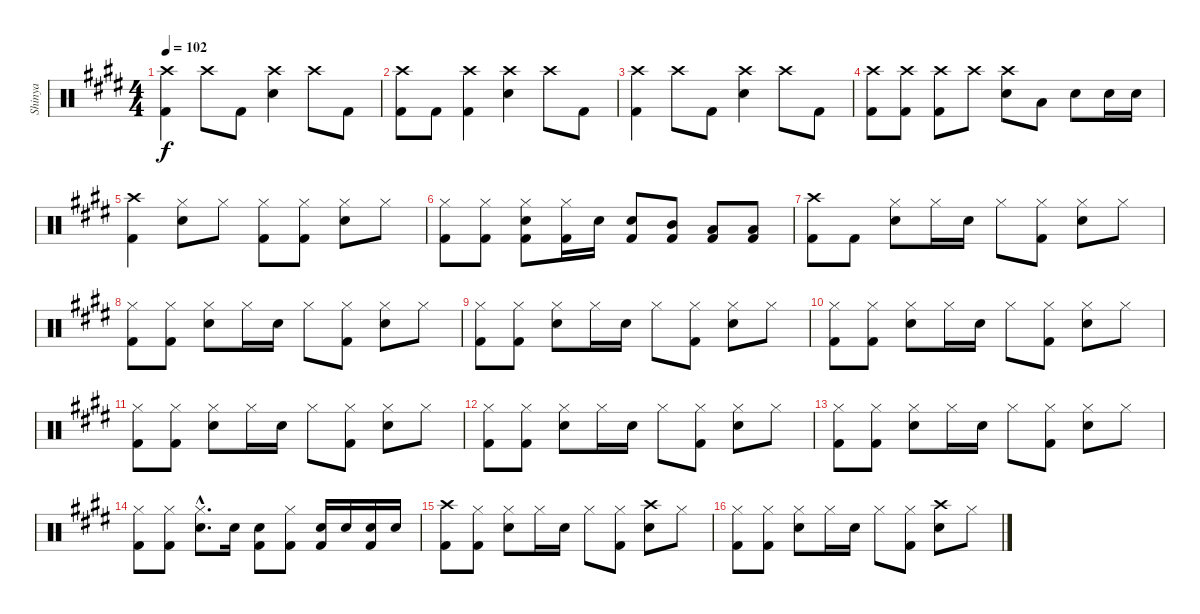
\track ("Shinya" "Shinya") {instrument percussion}
\staff {score}
\articulation defaults
\ts (4 4)
\tempo 102
\clef neutral
\ks e
("Crash high (hit)" "Kick (hit) 2").4{dy f} "Crash high (hit)".8 "Kick (hit) 2".8 ("Crash high (hit)" "Snare (hit) 2").4 "Crash high (hit)".8 "Kick (hit) 2".8 |
("Crash high (hit)" "Kick (hit) 2").8 "Kick (hit) 2".8 ("Crash high (hit)" "Kick (hit) 2").4 ("Crash high (hit)" "Snare (hit) 2").4 "Crash high (hit)".8 "Kick (hit) 2".8 |
("Crash high (hit)" "Kick (hit) 2").4 "Crash high (hit)".8 "Kick (hit) 2".8 ("Crash high (hit)" "Snare (hit) 2").4 "Crash high (hit)".8 "Kick (hit) 2".8 |
("Crash high (hit)" "Kick (hit) 2").8 ("Crash high (hit)" "Kick (hit) 2").8 ("Crash high (hit)" "Kick (hit) 2").8 "Crash high (hit)".8 ("Crash high (hit)" "Snare (hit) 2").8 "Low Tom (hit)".8 "Snare (hit) 2".8 "Snare (hit) 2".16 "Snare (hit) 2".16 |
("Crash high (hit)" "Kick (hit) 2").4 ("Hi-Hat (closed)" "Snare (hit) 2").8 "Hi-Hat (closed)".8 ("Hi-Hat (closed)" "Kick (hit) 2").8 ("Hi-Hat (closed)" "Kick (hit) 2").8 ("Hi-Hat (closed)" "Snare (hit) 2").8 "Hi-Hat (closed)".8 |
("Hi-Hat (closed)" "Kick (hit) 2").8 ("Hi-Hat (closed)" "Kick (hit) 2").8 ("Hi-Hat (closed)" "Snare (hit) 2" "Kick (hit) 2").8 ("Hi-Hat (closed)" "Kick (hit) 2").16 "Snare (hit) 2".16 ("Snare (hit) 2" "Kick (hit) 2").8 ("Mid Tom (hit)" "Kick (hit) 2").8 ("Low Tom (hit)" "Kick (hit) 2").8 ("Low Floor Tom (hit)" "Kick (hit) 2").8 |
("Crash high (hit)" "Kick (hit) 2").8 "Kick (hit) 2".8 ("Hi-Hat (closed)" "Snare (hit) 2").8 "Hi-Hat (closed)".16 "Snare (hit) 2".16 "Hi-Hat (closed)".8 ("Hi-Hat (closed)" "Kick (hit) 2").8 ("Hi-Hat (closed)" "Snare (hit) 2").8 "Hi-Hat (closed)".8 |
("Hi-Hat (closed)" "Kick (hit) 2").8 ("Hi-Hat (closed)" "Kick (hit) 2").8 ("Hi-Hat (closed)" "Snare (hit) 2").8 "Hi-Hat (closed)".16 "Snare (hit) 2".16 "Hi-Hat (closed)".8 ("Hi-Hat (closed)" "Kick (hit) 2").8 ("Hi-Hat (closed)" "Snare (hit) 2").8 "Hi-Hat (closed)".8 |
("Hi-Hat (closed)" "Kick (hit) 2").8 ("Hi-Hat (closed)" "Kick (hit) 2").8 ("Hi-Hat (closed)" "Snare (hit) 2").8 "Hi-Hat (closed)".16 "Snare (hit) 2".16 "Hi-Hat (closed)".8 ("Hi-Hat (closed)" "Kick (hit) 2").8 ("Hi-Hat (closed)" "Snare (hit) 2").8 "Hi-Hat (closed)".8 |
("Hi-Hat (closed)" "Kick (hit) 2").8 ("Hi-Hat (closed)" "Kick (hit) 2").8 ("Hi-Hat (closed)" "Snare (hit) 2").8 "Hi-Hat (closed)".16 "Snare (hit) 2".16 "Hi-Hat (closed)".8 ("Hi-Hat (closed)" "Kick (hit) 2").8 ("Hi-Hat (closed)" "Snare (hit) 2").8 "Hi-Hat (closed)".8 |
("Hi-Hat (closed)" "Kick (hit) 2").8 ("Hi-Hat (closed)" "Kick (hit) 2").8 ("Hi-Hat (closed)" "Snare (hit) 2").8 "Hi-Hat (closed)".16 "Snare (hit) 2".16 "Hi-Hat (closed)".8 ("Hi-Hat (closed)" "Kick (hit) 2").8 ("Hi-Hat (closed)" "Snare (hit) 2").8 "Hi-Hat (closed)".8 |
("Hi-Hat (closed)" "Kick (hit) 2").8 ("Hi-Hat (closed)" "Kick (hit) 2").8 ("Hi-Hat (closed)" "Snare (hit) 2").8 "Hi-Hat (closed)".16 "Snare (hit) 2".16 "Hi-Hat (closed)".8 ("Hi-Hat (closed)" "Kick (hit) 2").8 ("Hi-Hat (closed)" "Snare (hit) 2").8 "Hi-Hat (closed)".8 |
("Hi-Hat (closed)" "Kick (hit) 2").8 ("Hi-Hat (closed)" "Kick (hit) 2").8 ("Hi-Hat (closed)" "Snare (hit) 2").8 "Hi-Hat (closed)".16 "Snare (hit) 2".16 "Hi-Hat (closed)".8 ("Hi-Hat (closed)" "Kick (hit) 2").8 ("Hi-Hat (closed)" "Snare (hit) 2").8 "Hi-Hat (closed)".8 |
("Hi-Hat (closed)" "Kick (hit) 2").8 ("Hi-Hat (closed)" "Kick (hit) 2").8 ("Hi-Hat (closed)"{hac} "Snare (hit) 2"{hac}).8{d} "Snare (hit) 2".16 ("Snare (hit) 2" "Kick (hit) 2").8 ("Hi-Hat (closed)" "Kick (hit) 2").8 ("Snare (hit) 2" "Kick (hit) 2").16 "Snare (hit) 2".16 ("Snare (hit) 2" "Kick (hit) 2").16 "Snare (hit) 2".16 |
("Crash high (hit)" "Kick (hit) 2").8 ("Hi-Hat (closed)" "Kick (hit) 2").8 ("Hi-Hat (closed)" "Snare (hit) 2").8 "Hi-Hat (closed)".16 "Snare (hit) 2".16 "Hi-Hat (closed)".8 ("Hi-Hat (closed)" "Kick (hit) 2").8 ("Crash high (hit)" "Snare (hit) 2").8 "Hi-Hat (closed)".8 |
("Hi-Hat (closed)" "Kick (hit) 2").8 ("Hi-Hat (closed)" "Kick (hit) 2").8 ("Hi-Hat (closed)" "Snare (hit) 2").8 "Hi-Hat (closed)".16 "Snare (hit) 2".16 "Hi-Hat (closed)".8 ("Hi-Hat (closed)" "Kick (hit) 2").8 ("Crash high (hit)" "Snare (hit) 2").8 "Hi-Hat (closed)".8
